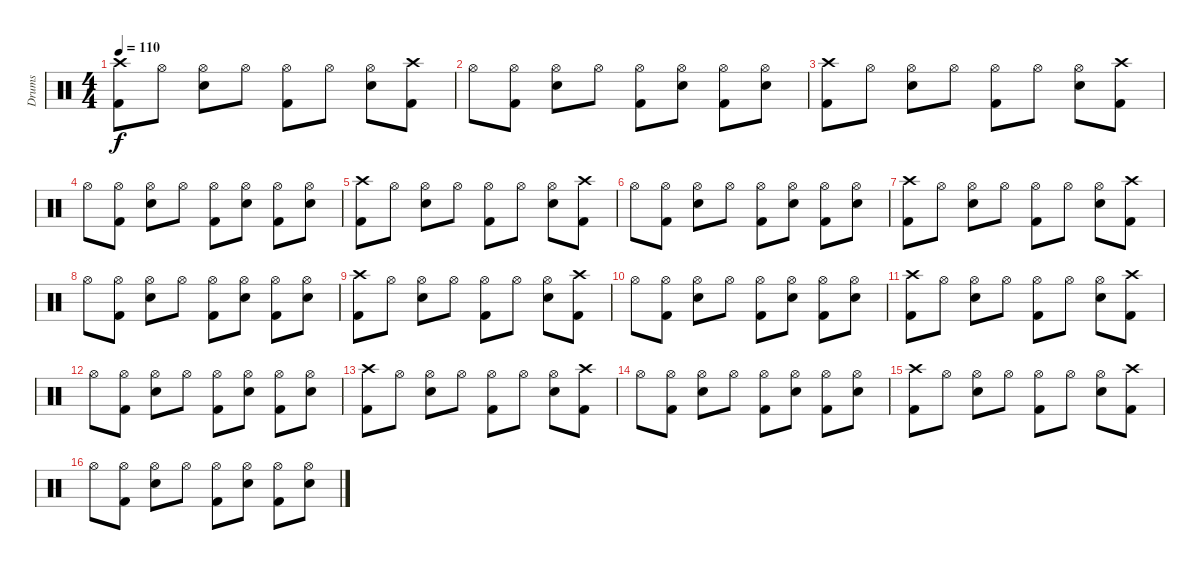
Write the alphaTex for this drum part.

\track ("Drums" "Drums") {instrument percussion}
\staff {score}
\articulation defaults
\ts (4 4)
\tempo 110
\clef neutral
\ks c
("Crash high (hit)" "Kick (hit) 2").8{dy f} "Hi-Hat (open)".8 ("Hi-Hat (open)" "Electric Snare (hit)").8 "Hi-Hat (open)".8 ("Hi-Hat (open)" "Kick (hit) 2").8 "Hi-Hat (open)".8 ("Hi-Hat (open)" "Electric Snare (hit)").8 ("Crash high (hit)" "Kick (hit) 2").8 |
"Hi-Hat (open)".8 ("Hi-Hat (open)" "Kick (hit) 2").8 ("Hi-Hat (open)" "Electric Snare (hit)").8 "Hi-Hat (open)".8 ("Hi-Hat (open)" "Kick (hit) 2").8 ("Hi-Hat (open)" "Electric Snare (hit)").8 ("Hi-Hat (open)" "Kick (hit) 2").8 ("Hi-Hat (open)" "Electric Snare (hit)").8 |
("Crash high (hit)" "Kick (hit) 2").8 "Hi-Hat (open)".8 ("Hi-Hat (open)" "Electric Snare (hit)").8 "Hi-Hat (open)".8 ("Hi-Hat (open)" "Kick (hit) 2").8 "Hi-Hat (open)".8 ("Hi-Hat (open)" "Electric Snare (hit)").8 ("Crash high (hit)" "Kick (hit) 2").8 |
"Hi-Hat (open)".8 ("Hi-Hat (open)" "Kick (hit) 2").8 ("Hi-Hat (open)" "Electric Snare (hit)").8 "Hi-Hat (open)".8 ("Hi-Hat (open)" "Kick (hit) 2").8 ("Hi-Hat (open)" "Electric Snare (hit)").8 ("Hi-Hat (open)" "Kick (hit) 2").8 ("Hi-Hat (open)" "Electric Snare (hit)").8 |
("Crash high (hit)" "Kick (hit) 2").8 "Hi-Hat (open)".8 ("Hi-Hat (open)" "Electric Snare (hit)").8 "Hi-Hat (open)".8 ("Hi-Hat (open)" "Kick (hit) 2").8 "Hi-Hat (open)".8 ("Hi-Hat (open)" "Electric Snare (hit)").8 ("Crash high (hit)" "Kick (hit) 2").8 |
"Hi-Hat (open)".8 ("Hi-Hat (open)" "Kick (hit) 2").8 ("Hi-Hat (open)" "Electric Snare (hit)").8 "Hi-Hat (open)".8 ("Hi-Hat (open)" "Kick (hit) 2").8 ("Hi-Hat (open)" "Electric Snare (hit)").8 ("Hi-Hat (open)" "Kick (hit) 2").8 ("Hi-Hat (open)" "Electric Snare (hit)").8 |
("Crash high (hit)" "Kick (hit) 2").8 "Hi-Hat (open)".8 ("Hi-Hat (open)" "Electric Snare (hit)").8 "Hi-Hat (open)".8 ("Hi-Hat (open)" "Kick (hit) 2").8 "Hi-Hat (open)".8 ("Hi-Hat (open)" "Electric Snare (hit)").8 ("Crash high (hit)" "Kick (hit) 2").8 |
"Hi-Hat (open)".8 ("Hi-Hat (open)" "Kick (hit) 2").8 ("Hi-Hat (open)" "Electric Snare (hit)").8 "Hi-Hat (open)".8 ("Hi-Hat (open)" "Kick (hit) 2").8 ("Hi-Hat (open)" "Electric Snare (hit)").8 ("Hi-Hat (open)" "Kick (hit) 2").8 ("Hi-Hat (open)" "Electric Snare (hit)").8 |
("Crash high (hit)" "Kick (hit) 2").8 "Hi-Hat (open)".8 ("Hi-Hat (open)" "Electric Snare (hit)").8 "Hi-Hat (open)".8 ("Hi-Hat (open)" "Kick (hit) 2").8 "Hi-Hat (open)".8 ("Hi-Hat (open)" "Electric Snare (hit)").8 ("Crash high (hit)" "Kick (hit) 2").8 |
"Hi-Hat (open)".8 ("Hi-Hat (open)" "Kick (hit) 2").8 ("Hi-Hat (open)" "Electric Snare (hit)").8 "Hi-Hat (open)".8 ("Hi-Hat (open)" "Kick (hit) 2").8 ("Hi-Hat (open)" "Electric Snare (hit)").8 ("Hi-Hat (open)" "Kick (hit) 2").8 ("Hi-Hat (open)" "Electric Snare (hit)").8 |
("Crash high (hit)" "Kick (hit) 2").8 "Hi-Hat (open)".8 ("Hi-Hat (open)" "Electric Snare (hit)").8 "Hi-Hat (open)".8 ("Hi-Hat (open)" "Kick (hit) 2").8 "Hi-Hat (open)".8 ("Hi-Hat (open)" "Electric Snare (hit)").8 ("Crash high (hit)" "Kick (hit) 2").8 |
"Hi-Hat (open)".8 ("Hi-Hat (open)" "Kick (hit) 2").8 ("Hi-Hat (open)" "Electric Snare (hit)").8 "Hi-Hat (open)".8 ("Hi-Hat (open)" "Kick (hit) 2").8 ("Hi-Hat (open)" "Electric Snare (hit)").8 ("Hi-Hat (open)" "Kick (hit) 2").8 ("Hi-Hat (open)" "Electric Snare (hit)").8 |
("Crash high (hit)" "Kick (hit) 2").8 "Hi-Hat (open)".8 ("Hi-Hat (open)" "Electric Snare (hit)").8 "Hi-Hat (open)".8 ("Hi-Hat (open)" "Kick (hit) 2").8 "Hi-Hat (open)".8 ("Hi-Hat (open)" "Electric Snare (hit)").8 ("Crash high (hit)" "Kick (hit) 2").8 |
"Hi-Hat (open)".8 ("Hi-Hat (open)" "Kick (hit) 2").8 ("Hi-Hat (open)" "Electric Snare (hit)").8 "Hi-Hat (open)".8 ("Hi-Hat (open)" "Kick (hit) 2").8 ("Hi-Hat (open)" "Electric Snare (hit)").8 ("Hi-Hat (open)" "Kick (hit) 2").8 ("Hi-Hat (open)" "Electric Snare (hit)").8 |
("Crash high (hit)" "Kick (hit) 2").8 "Hi-Hat (open)".8 ("Hi-Hat (open)" "Electric Snare (hit)").8 "Hi-Hat (open)".8 ("Hi-Hat (open)" "Kick (hit) 2").8 "Hi-Hat (open)".8 ("Hi-Hat (open)" "Electric Snare (hit)").8 ("Crash high (hit)" "Kick (hit) 2").8 |
"Hi-Hat (open)".8 ("Hi-Hat (open)" "Kick (hit) 2").8 ("Hi-Hat (open)" "Electric Snare (hit)").8 "Hi-Hat (open)".8 ("Hi-Hat (open)" "Kick (hit) 2").8 ("Hi-Hat (open)" "Electric Snare (hit)").8 ("Hi-Hat (open)" "Kick (hit) 2").8 ("Hi-Hat (open)" "Electric Snare (hit)").8
